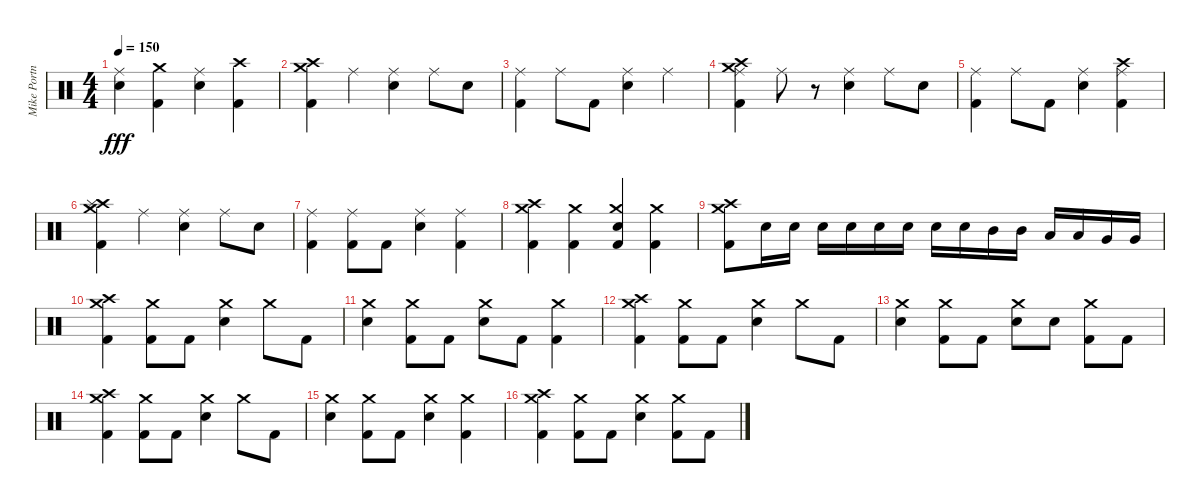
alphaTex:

\track ("Mike Portnoy" "Mike Portn") {instrument percussion}
\staff {score}
\articulation defaults
\ts (4 4)
\tempo 150
\clef neutral
\ks c
("Ride (middle)" "Electric Snare (hit)").4{dy fff} ("Crash medium (hit)" "Kick (hit) 2").4 ("Ride (middle)" "Electric Snare (hit)").4 ("Crash high (hit)" "Kick (hit) 2").4 |
("Crash high (hit)" "Crash medium (hit)" "Kick (hit) 2").4 "Ride (middle)".4 ("Ride (middle)" "Electric Snare (hit)").4 "Ride (middle)".8 "Electric Snare (hit)".8 |
("Ride (middle)" "Kick (hit) 2").4 "Ride (middle)".8 "Kick (hit) 2".8 ("Ride (middle)" "Electric Snare (hit)").4 "Ride (middle)".4 |
("Crash medium (hit)" "Crash high (hit)" "Ride (middle)" "Kick (hit) 2").4 "Ride (middle)".8 r.8 ("Ride (middle)" "Electric Snare (hit)").4 "Ride (middle)".8 "Electric Snare (hit)".8 |
("Ride (middle)" "Kick (hit) 2").4 "Ride (middle)".8 "Kick (hit) 2".8 ("Ride (middle)" "Electric Snare (hit)").4 ("Crash high (hit)" "Ride (middle)" "Kick (hit) 2").4 |
("Crash high (hit)" "Crash medium (hit)" "Splash (hit)" "Kick (hit) 2").4 "Ride (middle)".4 ("Ride (middle)" "Electric Snare (hit)").4 "Ride (middle)".8 "Electric Snare (hit)".8 |
("Ride (middle)" "Kick (hit) 2").4 ("Ride (middle)" "Kick (hit) 2").8 "Kick (hit) 2".8 ("Ride (middle)" "Electric Snare (hit)").4 ("Ride (middle)" "Kick (hit) 2").4 |
("Crash high (hit)" "Crash medium (hit)" "Kick (hit) 2").4 ("Crash medium (hit)" "Kick (hit) 2").4 ("Crash medium (hit)" "Kick (hit) 2" "Electric Snare (hit)").4 ("Crash medium (hit)" "Kick (hit) 2").4 |
("Crash high (hit)" "Crash medium (hit)" "Kick (hit) 2").8 "Electric Snare (hit)".16 "Electric Snare (hit)".16 "Electric Snare (hit)".16 "Electric Snare (hit)".16 "Electric Snare (hit)".16 "Electric Snare (hit)".16 "Electric Snare (hit)".16 "Electric Snare (hit)".16 "Mid Tom (hit)".16 "Mid Tom (hit)".16 "Low Tom (hit)".16 "Low Tom (hit)".16 "Very Low Tom (hit)".16 "Very Low Tom (hit)".16 |
("Crash high (hit)" "Crash medium (hit)" "Kick (hit) 2").4 ("Crash medium (hit)" "Kick (hit) 2").8 "Kick (hit) 2".8 ("Crash medium (hit)" "Electric Snare (hit)").4 "Crash medium (hit)".8 "Kick (hit) 2".8 |
("Crash medium (hit)" "Electric Snare (hit)").4 ("Crash medium (hit)" "Kick (hit) 2").8 "Kick (hit) 2".8 ("Crash medium (hit)" "Electric Snare (hit)").8 "Kick (hit) 2".8 ("Crash medium (hit)" "Kick (hit) 2").4 |
("Crash high (hit)" "Crash medium (hit)" "Kick (hit) 2").4 ("Crash medium (hit)" "Kick (hit) 2").8 "Kick (hit) 2".8 ("Crash medium (hit)" "Electric Snare (hit)").4 "Crash medium (hit)".8 "Kick (hit) 2".8 |
("Crash medium (hit)" "Electric Snare (hit)").4 ("Crash medium (hit)" "Kick (hit) 2").8 "Kick (hit) 2".8 ("Crash medium (hit)" "Electric Snare (hit)").8 "Electric Snare (hit)".8 ("Crash medium (hit)" "Kick (hit) 2").8 "Kick (hit) 2".8 |
("Crash high (hit)" "Crash medium (hit)" "Kick (hit) 2").4 ("Crash medium (hit)" "Kick (hit) 2").8 "Kick (hit) 2".8 ("Crash medium (hit)" "Electric Snare (hit)").4 "Crash medium (hit)".8 "Kick (hit) 2".8 |
("Crash medium (hit)" "Electric Snare (hit)").4 ("Crash medium (hit)" "Kick (hit) 2").8 "Kick (hit) 2".8 ("Crash medium (hit)" "Electric Snare (hit)").4 ("Crash medium (hit)" "Kick (hit) 2").4 |
("Crash high (hit)" "Crash medium (hit)" "Kick (hit) 2").4 ("Crash medium (hit)" "Kick (hit) 2").8 "Kick (hit) 2".8 ("Crash medium (hit)" "Electric Snare (hit)").4 ("Crash medium (hit)" "Kick (hit) 2").8 "Kick (hit) 2".8
